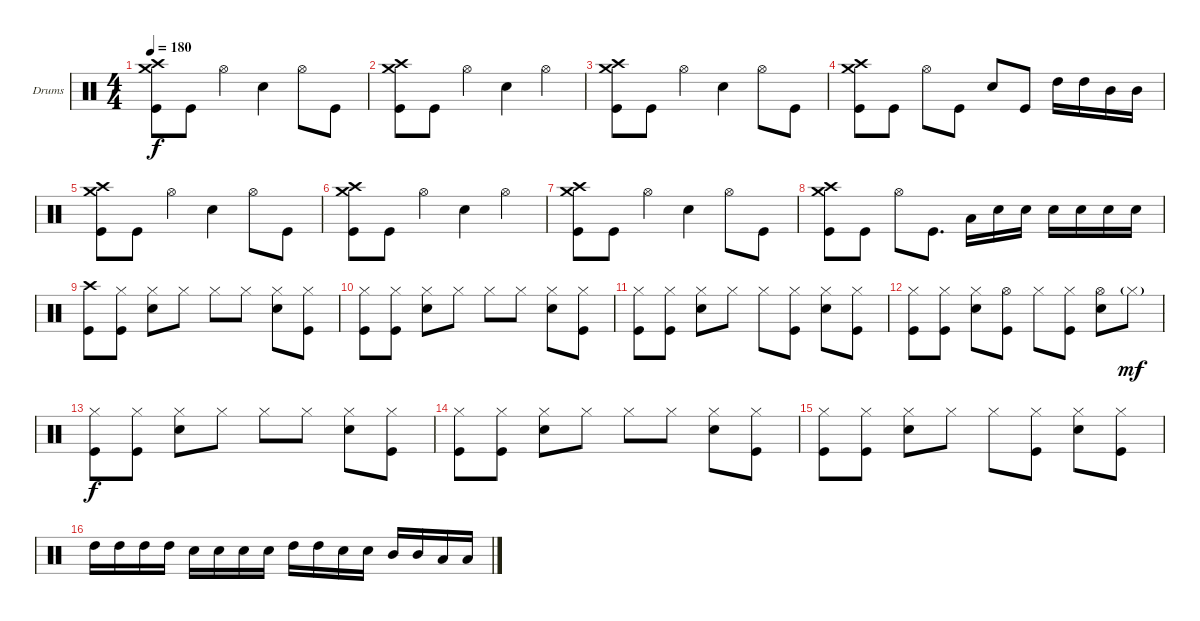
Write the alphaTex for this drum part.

\defaultSystemsLayout 4
\bracketExtendMode groupsimilarinstruments
\firstSystemTrackNameOrientation horizontal
\otherSystemsTrackNameOrientation horizontal
\track ("Барабаны" "Drums") {instrument percussion}
\staff {score}
\articulation defaults
\ts (4 4)
\tempo 180
\clef neutral
\scale
0.333333
\ks c
("Crash medium (hit)" "Crash high (hit)" "Kick (hit)").8{dy f} "Kick (hit)".8 "Hi-Hat (open)".4 "Snare (hit) 2".4 "Hi-Hat (open)".8 "Kick (hit)".8 |
\scale
0.333333 ("Crash medium (hit)" "Crash high (hit)" "Kick (hit)").8 "Kick (hit)".8 "Hi-Hat (open)".4 "Snare (hit) 2".4 "Hi-Hat (open)".4 |
\scale
0.333333 ("Crash medium (hit)" "Crash high (hit)" "Kick (hit)").8 "Kick (hit)".8 "Hi-Hat (open)".4 "Snare (hit) 2".4 "Hi-Hat (open)".8 "Kick (hit)".8 |
\scale
0.333333 ("Crash high (hit)" "Crash medium (hit)" "Kick (hit)").8 "Kick (hit)".8 "Hi-Hat (open)".8 "Kick (hit)".8 "Snare (hit) 2".8 "Kick (hit)".8 "High Tom (hit)".16 "High Tom (hit)".16 "Mid Tom (hit)".16 "Mid Tom (hit)".16 |
\scale
0.333333 ("Crash medium (hit)" "Crash high (hit)" "Kick (hit)").8 "Kick (hit)".8 "Hi-Hat (open)".4 "Snare (hit) 2".4 "Hi-Hat (open)".8 "Kick (hit)".8 |
\scale
0.333333 ("Crash medium (hit)" "Crash high (hit)" "Kick (hit)").8 "Kick (hit)".8 "Hi-Hat (open)".4 "Snare (hit) 2".4 "Hi-Hat (open)".4 |
\scale
0.333333 ("Crash medium (hit)" "Crash high (hit)" "Kick (hit)").8 "Kick (hit)".8 "Hi-Hat (open)".4 "Snare (hit) 2".4 "Hi-Hat (open)".8 "Kick (hit)".8 |
\scale
0.333333 ("Crash high (hit)" "Crash medium (hit)" "Kick (hit)").8 "Kick (hit)".8 "Hi-Hat (open)".8 "Kick (hit)".8{d} "Low Tom (hit)".16 "Snare (hit) 2".16 "Snare (hit) 2".16 "Snare (hit) 2".16 "Snare (hit) 2".16 "Snare (hit) 2".16 "Snare (hit) 2".16 |
\scale
0.333333 ("Crash high (hit)" "Kick (hit)").8 ("Hi-Hat (closed)" "Kick (hit)").8 ("Hi-Hat (closed)" "Snare (hit) 2").8 "Hi-Hat (closed)".8 "Hi-Hat (closed)".8 "Hi-Hat (closed)".8 ("Hi-Hat (closed)" "Snare (hit) 2").8 ("Hi-Hat (closed)" "Kick (hit)").8 |
\scale
0.333333 ("Hi-Hat (closed)" "Kick (hit)").8 ("Hi-Hat (closed)" "Kick (hit)").8 ("Hi-Hat (closed)" "Snare (hit) 2").8 "Hi-Hat (closed)".8 "Hi-Hat (closed)".8 "Hi-Hat (closed)".8 ("Hi-Hat (closed)" "Snare (hit) 2").8 ("Hi-Hat (closed)" "Kick (hit)").8 |
\scale
0.333333 ("Hi-Hat (closed)" "Kick (hit)").8 ("Hi-Hat (closed)" "Kick (hit)").8 ("Hi-Hat (closed)" "Snare (hit) 2").8 "Hi-Hat (closed)".8 "Hi-Hat (closed)".8 ("Hi-Hat (closed)" "Kick (hit)").8 ("Hi-Hat (closed)" "Snare (hit) 2").8 ("Hi-Hat (closed)" "Kick (hit)").8 |
\scale
0.333333 ("Hi-Hat (closed)" "Kick (hit)").8 ("Hi-Hat (closed)" "Kick (hit)").8 ("Hi-Hat (closed)" "Snare (hit) 2").8 ("Hi-Hat (open)" "Kick (hit)").8 "Hi-Hat (closed)".8 ("Hi-Hat (closed)" "Kick (hit)").8 ("Hi-Hat (open)" "Snare (hit) 2").8 "Hi-Hat (closed)"{g}.8{dy mf} |
\scale
0.333333 ("Hi-Hat (closed)" "Kick (hit)").8{dy f} ("Hi-Hat (closed)" "Kick (hit)").8 ("Hi-Hat (closed)" "Snare (hit) 2").8 "Hi-Hat (closed)".8 "Hi-Hat (closed)".8 "Hi-Hat (closed)".8 ("Hi-Hat (closed)" "Snare (hit) 2").8 ("Hi-Hat (closed)" "Kick (hit)").8 |
\scale
0.333333 ("Hi-Hat (closed)" "Kick (hit)").8 ("Hi-Hat (closed)" "Kick (hit)").8 ("Hi-Hat (closed)" "Snare (hit) 2").8 "Hi-Hat (closed)".8 "Hi-Hat (closed)".8 "Hi-Hat (closed)".8 ("Hi-Hat (closed)" "Snare (hit) 2").8 ("Hi-Hat (closed)" "Kick (hit)").8 |
\scale
0.333333 ("Hi-Hat (closed)" "Kick (hit)").8 ("Hi-Hat (closed)" "Kick (hit)").8 ("Hi-Hat (closed)" "Snare (hit) 2").8 "Hi-Hat (closed)".8 "Hi-Hat (closed)".8 ("Hi-Hat (closed)" "Kick (hit)").8 ("Hi-Hat (closed)" "Snare (hit) 2").8 ("Hi-Hat (closed)" "Kick (hit)").8 |
\scale
0.333333 "High Tom (hit)".16 "High Tom (hit)".16 "High Tom (hit)".16 "High Tom (hit)".16 "Snare (hit) 2".16 "Snare (hit) 2".16 "Snare (hit) 2".16 "Snare (hit) 2".16 "High Tom (hit)".16 "High Tom (hit)".16 "Snare (hit) 2".16 "Snare (hit) 2".16 "Mid Tom (hit)".16 "Mid Tom (hit)".16 "Low Tom (hit)".16 "Low Tom (hit)".16
